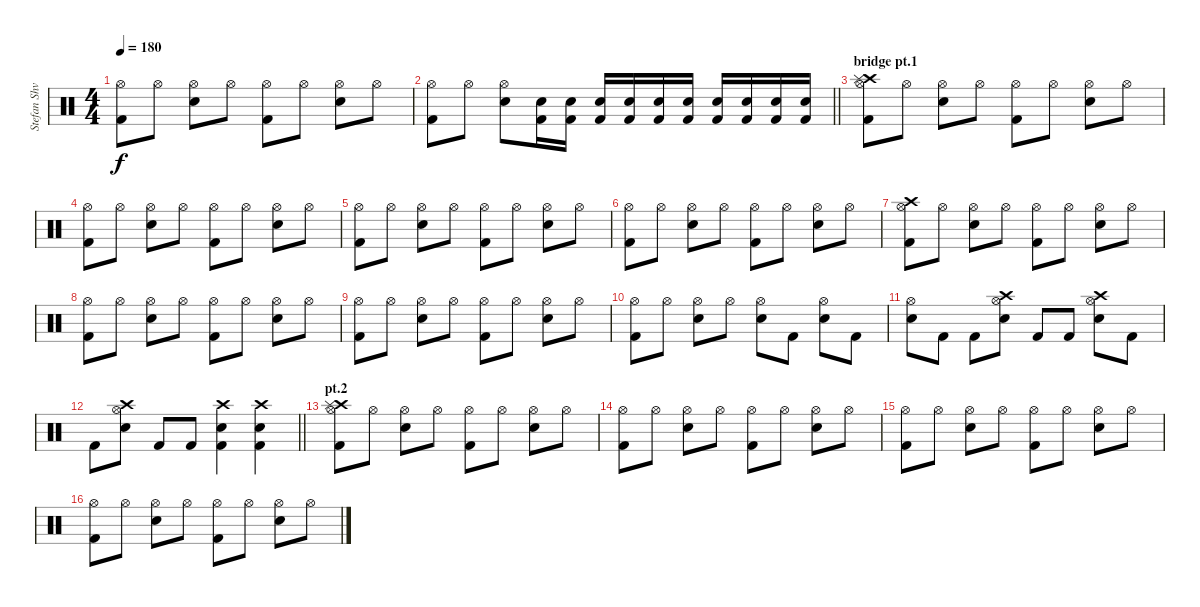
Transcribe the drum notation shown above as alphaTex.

\track ("Stefan Shvartsman" "Stefan Shv") {instrument percussion}
\staff {score}
\articulation defaults
\ts (4 4)
\tempo 180
\clef neutral
\ks c
("Hi-Hat (open)" "Kick (hit) 2").8{dy f} "Hi-Hat (open)".8 ("Hi-Hat (open)" "Snare (hit) 2").8 "Hi-Hat (open)".8 ("Hi-Hat (open)" "Kick (hit) 2").8 "Hi-Hat (open)".8 ("Hi-Hat (open)" "Snare (hit) 2").8 "Hi-Hat (open)".8 |
\barLineRight lightlight
("Hi-Hat (open)" "Kick (hit) 2").8 "Hi-Hat (open)".8 ("Hi-Hat (open)" "Snare (hit) 2").8 ("Snare (hit) 2" "Kick (hit) 2").16 ("Snare (hit) 2" "Kick (hit) 2").16 ("Snare (hit) 2" "Kick (hit) 2").16 ("Snare (hit) 2" "Kick (hit) 2").16 ("Snare (hit) 2" "Kick (hit) 2").16 ("Snare (hit) 2" "Kick (hit) 2").16 ("Snare (hit) 2" "Kick (hit) 2").16 ("Snare (hit) 2" "Kick (hit) 2").16 ("Snare (hit) 2" "Kick (hit) 2").16 ("Snare (hit) 2" "Kick (hit) 2").16 |
\section ("" "bridge pt.1")
("Hi-Hat (open)" "Kick (hit) 2" "Crash high (hit)" "Splash (hit)").8 "Hi-Hat (open)".8 ("Hi-Hat (open)" "Snare (hit) 2").8 "Hi-Hat (open)".8 ("Hi-Hat (open)" "Kick (hit) 2").8 "Hi-Hat (open)".8 ("Hi-Hat (open)" "Snare (hit) 2").8 "Hi-Hat (open)".8 |
("Hi-Hat (open)" "Kick (hit) 2").8 "Hi-Hat (open)".8 ("Hi-Hat (open)" "Snare (hit) 2").8 "Hi-Hat (open)".8 ("Hi-Hat (open)" "Kick (hit) 2").8 "Hi-Hat (open)".8 ("Hi-Hat (open)" "Snare (hit) 2").8 "Hi-Hat (open)".8 |
("Hi-Hat (open)" "Kick (hit) 2").8 "Hi-Hat (open)".8 ("Hi-Hat (open)" "Snare (hit) 2").8 "Hi-Hat (open)".8 ("Hi-Hat (open)" "Kick (hit) 2").8 "Hi-Hat (open)".8 ("Hi-Hat (open)" "Snare (hit) 2").8 "Hi-Hat (open)".8 |
("Hi-Hat (open)" "Kick (hit) 2").8 "Hi-Hat (open)".8 ("Hi-Hat (open)" "Snare (hit) 2").8 "Hi-Hat (open)".8 ("Hi-Hat (open)" "Kick (hit) 2").8 "Hi-Hat (open)".8 ("Hi-Hat (open)" "Snare (hit) 2").8 "Hi-Hat (open)".8 |
("Hi-Hat (open)" "Kick (hit) 2" "Crash high (hit)").8 "Hi-Hat (open)".8 ("Hi-Hat (open)" "Snare (hit) 2").8 "Hi-Hat (open)".8 ("Hi-Hat (open)" "Kick (hit) 2").8 "Hi-Hat (open)".8 ("Hi-Hat (open)" "Snare (hit) 2").8 "Hi-Hat (open)".8 |
("Hi-Hat (open)" "Kick (hit) 2").8 "Hi-Hat (open)".8 ("Hi-Hat (open)" "Snare (hit) 2").8 "Hi-Hat (open)".8 ("Hi-Hat (open)" "Kick (hit) 2").8 "Hi-Hat (open)".8 ("Hi-Hat (open)" "Snare (hit) 2").8 "Hi-Hat (open)".8 |
("Hi-Hat (open)" "Kick (hit) 2").8 "Hi-Hat (open)".8 ("Hi-Hat (open)" "Snare (hit) 2").8 "Hi-Hat (open)".8 ("Hi-Hat (open)" "Kick (hit) 2").8 "Hi-Hat (open)".8 ("Hi-Hat (open)" "Snare (hit) 2").8 "Hi-Hat (open)".8 |
("Hi-Hat (open)" "Kick (hit) 2").8 "Hi-Hat (open)".8 ("Hi-Hat (open)" "Snare (hit) 2").8 "Hi-Hat (open)".8 ("Hi-Hat (open)" "Snare (hit) 2").8 "Kick (hit) 2".8 ("Hi-Hat (open)" "Snare (hit) 2").8 "Kick (hit) 2".8 |
("Hi-Hat (open)" "Snare (hit) 2").8 "Kick (hit) 2".8 "Kick (hit) 2".8 ("Hi-Hat (open)" "Snare (hit) 2" "Crash high (hit)").8 "Kick (hit) 2".8 "Kick (hit) 2".8 ("Hi-Hat (open)" "Snare (hit) 2" "Crash high (hit)").8 "Kick (hit) 2".8 |
\barLineRight lightlight "Kick (hit) 2".8
("Hi-Hat (open)" "Snare (hit) 2" "Crash high (hit)").8 "Kick (hit) 2".8 "Kick (hit) 2".8 ("Crash high (hit)" "Snare (hit) 2" "Kick (hit) 2").4 ("Crash high (hit)" "Snare (hit) 2" "Kick (hit) 2").4 |
\section ("" "pt.2")
("Hi-Hat (open)" "Kick (hit) 2" "Crash high (hit)" "Splash (hit)").8 "Hi-Hat (open)".8 ("Hi-Hat (open)" "Snare (hit) 2").8 "Hi-Hat (open)".8 ("Hi-Hat (open)" "Kick (hit) 2").8 "Hi-Hat (open)".8 ("Hi-Hat (open)" "Snare (hit) 2").8 "Hi-Hat (open)".8 |
("Hi-Hat (open)" "Kick (hit) 2").8 "Hi-Hat (open)".8 ("Hi-Hat (open)" "Snare (hit) 2").8 "Hi-Hat (open)".8 ("Hi-Hat (open)" "Kick (hit) 2").8 "Hi-Hat (open)".8 ("Hi-Hat (open)" "Snare (hit) 2").8 "Hi-Hat (open)".8 |
("Hi-Hat (open)" "Kick (hit) 2").8 "Hi-Hat (open)".8 ("Hi-Hat (open)" "Snare (hit) 2").8 "Hi-Hat (open)".8 ("Hi-Hat (open)" "Kick (hit) 2").8 "Hi-Hat (open)".8 ("Hi-Hat (open)" "Snare (hit) 2").8 "Hi-Hat (open)".8 |
("Hi-Hat (open)" "Kick (hit) 2").8 "Hi-Hat (open)".8 ("Hi-Hat (open)" "Snare (hit) 2").8 "Hi-Hat (open)".8 ("Hi-Hat (open)" "Kick (hit) 2").8 "Hi-Hat (open)".8 ("Hi-Hat (open)" "Snare (hit) 2").8 "Hi-Hat (open)".8
